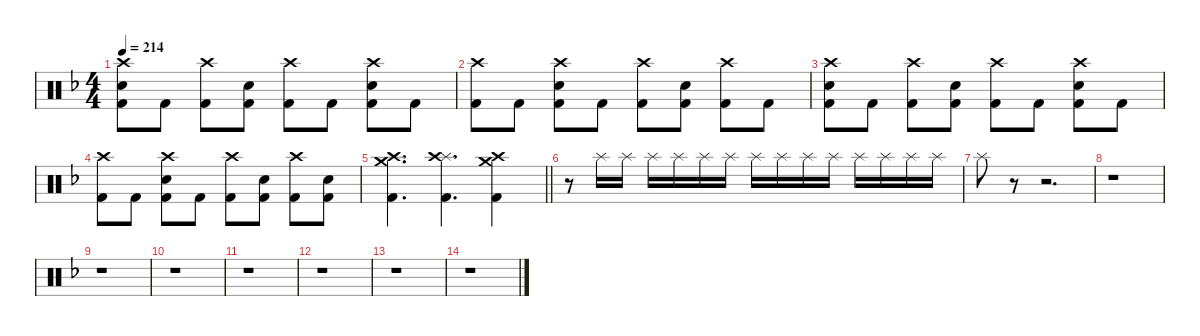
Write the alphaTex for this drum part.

\hideDynamics
\bracketExtendMode nobrackets
\singleTrackTrackNamePolicy hidden
\multiTrackTrackNamePolicy hidden
\firstSystemTrackNameMode fullname
\firstSystemTrackNameOrientation horizontal
\otherSystemsTrackNameOrientation horizontal
\track ("Drumkit" "Drums") {defaultSystemsLayout 4 instrument percussion}
\staff {score}
\articulation defaults
\ts (4 4)
\tempo 214
\clef neutral
\ks dminor
("Crash high (hit)"{acc forcenatural} "Snare (hit) 2"{acc forcenatural} "Kick (hit) 2"{acc forcenatural}).8{dy mf beam Down} "Kick (hit) 2"{acc forcenatural}.8{dy f beam Down} ("Crash high (hit)"{acc forcenatural} "Kick (hit) 2"{acc forcenatural}).8{dy mf beam Down} ("Snare (hit) 2"{acc forcenatural} "Kick (hit) 2"{acc forcenatural}).8{dy f beam Down} ("Crash high (hit)"{acc forcenatural} "Kick (hit) 2"{acc forcenatural}).8{dy mf beam Down} "Kick (hit) 2"{acc forcenatural}.8{dy f beam Down} ("Crash high (hit)"{acc forcenatural} "Snare (hit) 2"{acc forcenatural} "Kick (hit) 2"{acc forcenatural}).8{dy mf beam Down} "Kick (hit) 2"{acc forcenatural}.8{dy f beam Down} |
("Crash high (hit)"{acc forcenatural} "Kick (hit) 2"{acc forcenatural}).8{dy mf beam Down} "Kick (hit) 2"{acc forcenatural}.8{dy f beam Down} ("Crash high (hit)"{acc forcenatural} "Snare (hit) 2"{acc forcenatural} "Kick (hit) 2"{acc forcenatural}).8{dy mf beam Down} "Kick (hit) 2"{acc forcenatural}.8{dy f beam Down} ("Crash high (hit)"{acc forcenatural} "Kick (hit) 2"{acc forcenatural}).8{dy mf beam Down} ("Snare (hit) 2"{acc forcenatural} "Kick (hit) 2"{acc forcenatural}).8{dy f beam Down} ("Crash high (hit)"{acc forcenatural} "Kick (hit) 2"{acc forcenatural}).8{dy mf beam Down} "Kick (hit) 2"{acc forcenatural}.8{dy f beam Down} |
("Crash high (hit)"{acc forcenatural} "Snare (hit) 2"{acc forcenatural} "Kick (hit) 2"{acc forcenatural}).8{dy mf beam Down} "Kick (hit) 2"{acc forcenatural}.8{dy f beam Down} ("Crash high (hit)"{acc forcenatural} "Kick (hit) 2"{acc forcenatural}).8{dy mf beam Down} ("Snare (hit) 2"{acc forcenatural} "Kick (hit) 2"{acc forcenatural}).8{dy f beam Down} ("Crash high (hit)"{acc forcenatural} "Kick (hit) 2"{acc forcenatural}).8{dy mf beam Down} "Kick (hit) 2"{acc forcenatural}.8{dy f beam Down} ("Crash high (hit)"{acc forcenatural} "Snare (hit) 2"{acc forcenatural} "Kick (hit) 2"{acc forcenatural}).8{dy mf beam Down} "Kick (hit) 2"{acc forcenatural}.8{dy f beam Down} |
("Crash high (hit)"{acc forcenatural} "Kick (hit) 2"{acc forcenatural}).8{dy mf beam Down} "Kick (hit) 2"{acc forcenatural}.8{dy f beam Down} ("Crash high (hit)"{acc forcenatural} "Snare (hit) 2"{acc forcenatural} "Kick (hit) 2"{acc forcenatural}).8{dy mf beam Down} "Kick (hit) 2"{acc forcenatural}.8{dy f beam Down} ("Crash high (hit)"{acc forcenatural} "Kick (hit) 2"{acc forcenatural}).8{dy mf beam Down} ("Snare (hit) 2"{acc forcenatural} "Kick (hit) 2"{acc forcenatural}).8{dy f beam Down} ("Crash high (hit)"{acc forcenatural} "Kick (hit) 2"{acc forcenatural}).8{dy mf beam Down} ("Snare (hit) 2"{acc forcenatural} "Kick (hit) 2"{acc forcenatural}).8{dy f beam Down} |
\barLineRight lightlight
("Crash medium (hit)"{acc forcenatural} "Crash high (hit)"{acc forcenatural} "Kick (hit) 2"{acc forcenatural}).4{d beam Down} ("Splash (hit)"{acc forcenatural} "Crash high (hit)"{acc forcenatural} "Kick (hit) 2"{acc forcenatural}).4{d beam Down} ("Crash medium (hit)"{acc forcenatural} "Crash high (hit)"{acc forcenatural} "Kick (hit) 2"{acc forcenatural}).4{beam Down} |
r.8{beam Down} "Splash (hit)"{acc forcenatural}.16{dy pp beam Down} "Splash (hit)"{acc forcenatural}.16{beam Down} "Splash (hit)"{acc forcenatural}.16{dy p beam Down} "Splash (hit)"{acc forcenatural}.16{beam Down} "Splash (hit)"{acc forcenatural}.16{dy mp beam Down} "Splash (hit)"{acc forcenatural}.16{beam Down} "Splash (hit)"{acc forcenatural}.16{dy mf beam Down} "Splash (hit)"{acc forcenatural}.16{beam Down} "Splash (hit)"{acc forcenatural}.16{dy mp beam Down} "Splash (hit)"{acc forcenatural}.16{beam Down} "Splash (hit)"{acc forcenatural}.16{dy p beam Down} "Splash (hit)"{acc forcenatural}.16{beam Down} "Splash (hit)"{acc forcenatural}.16{dy pp beam Down} "Splash (hit)"{acc forcenatural}.16{beam Down} |
"Splash (hit)"{acc forcenatural}.8{dy p beam Down} r.8{beam Down} r.2{d beam Down} |
r.1{beam Down} |
r.1{beam Down} |
r.1{beam Down} |
r.1{beam Down} |
r.1{beam Down} |
r.1{beam Down} |
r.1{beam Down}
